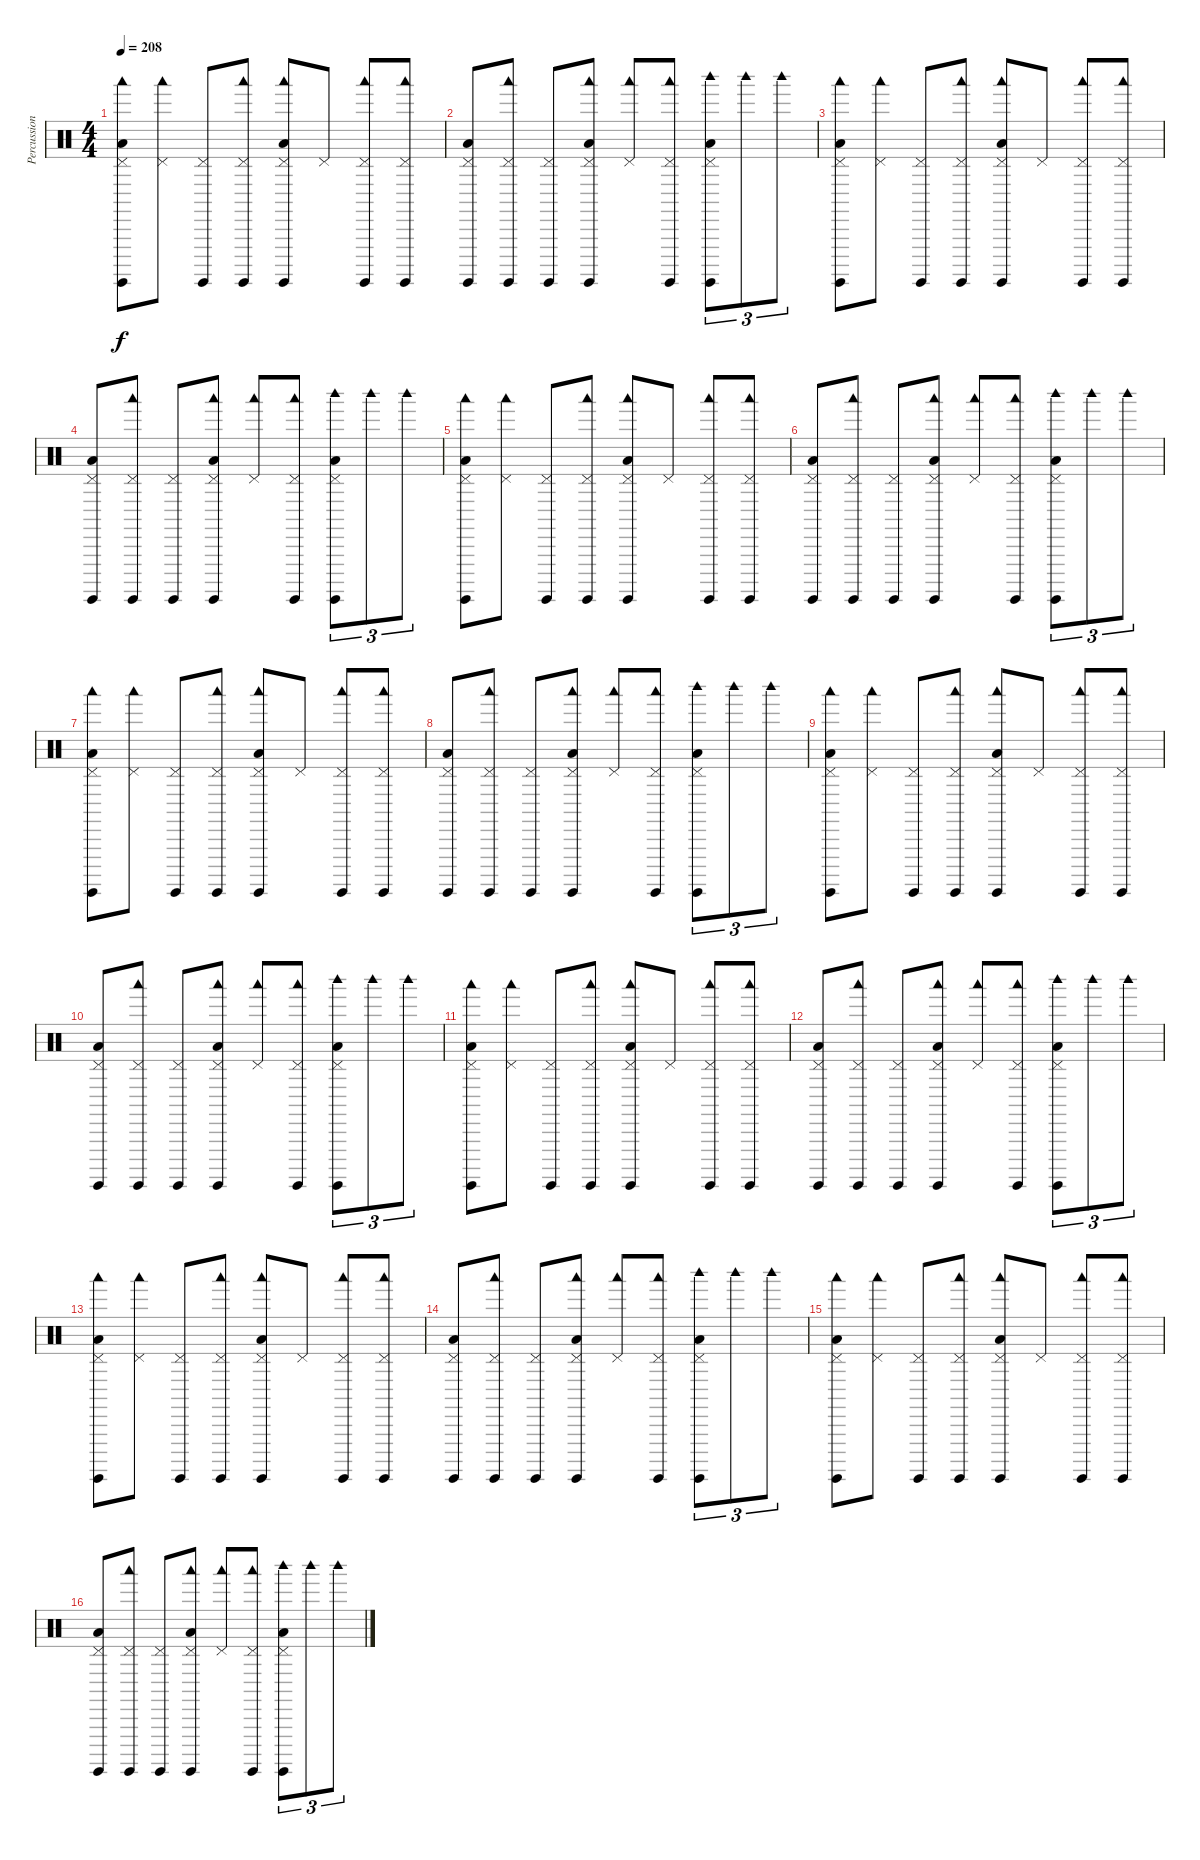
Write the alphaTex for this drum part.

\track ("Percussions" "Percussion") {instrument percussion}
\staff {score}
\articulation defaults
\ts (4 4)
\tempo 208
\clef neutral
\ks c
("Low Floor Tom (hit)" "Surdo (hit)" "Woodblock low (hit)" "Pedal Hi-Hat (hit)").8{bd 240 dy f} ("Woodblock low (hit)" "Pedal Hi-Hat (hit)").8 ("Surdo (hit)" "Pedal Hi-Hat (hit)").8 ("Surdo (hit)" "Woodblock low (hit)" "Pedal Hi-Hat (hit)").8 ("Low Floor Tom (hit)" "Surdo (hit)" "Woodblock low (hit)" "Pedal Hi-Hat (hit)").8{bd 240} "Pedal Hi-Hat (hit)".8 ("Surdo (hit)" "Woodblock low (hit)" "Pedal Hi-Hat (hit)").8 ("Surdo (hit)" "Woodblock low (hit)" "Pedal Hi-Hat (hit)").8 |
("Low Floor Tom (hit)" "Surdo (hit)" "Pedal Hi-Hat (hit)").8{bd 240} ("Surdo (hit)" "Woodblock low (hit)" "Pedal Hi-Hat (hit)").8 ("Surdo (hit)" "Pedal Hi-Hat (hit)").8 ("Low Floor Tom (hit)" "Surdo (hit)" "Woodblock low (hit)" "Pedal Hi-Hat (hit)").8{bd 240} ("Woodblock low (hit)" "Pedal Hi-Hat (hit)").8 ("Surdo (hit)" "Woodblock low (hit)" "Pedal Hi-Hat (hit)").8 ("Low Floor Tom (hit)" "Surdo (hit)" "Woodblock high (hit)" "Pedal Hi-Hat (hit)").8{tu (3 2)} "Woodblock high (hit)".8{tu (3 2)} "Woodblock high (hit)".8{tu (3 2)} |
("Low Floor Tom (hit)" "Surdo (hit)" "Woodblock low (hit)" "Pedal Hi-Hat (hit)").8{bd 240} ("Woodblock low (hit)" "Pedal Hi-Hat (hit)").8 ("Surdo (hit)" "Pedal Hi-Hat (hit)").8 ("Surdo (hit)" "Woodblock low (hit)" "Pedal Hi-Hat (hit)").8 ("Low Floor Tom (hit)" "Surdo (hit)" "Woodblock low (hit)" "Pedal Hi-Hat (hit)").8{bd 240} "Pedal Hi-Hat (hit)".8 ("Surdo (hit)" "Woodblock low (hit)" "Pedal Hi-Hat (hit)").8 ("Surdo (hit)" "Woodblock low (hit)" "Pedal Hi-Hat (hit)").8 |
("Low Floor Tom (hit)" "Surdo (hit)" "Pedal Hi-Hat (hit)").8{bd 240} ("Surdo (hit)" "Woodblock low (hit)" "Pedal Hi-Hat (hit)").8 ("Surdo (hit)" "Pedal Hi-Hat (hit)").8 ("Low Floor Tom (hit)" "Surdo (hit)" "Woodblock low (hit)" "Pedal Hi-Hat (hit)").8{bd 240} ("Woodblock low (hit)" "Pedal Hi-Hat (hit)").8 ("Surdo (hit)" "Woodblock low (hit)" "Pedal Hi-Hat (hit)").8 ("Low Floor Tom (hit)" "Surdo (hit)" "Woodblock high (hit)" "Pedal Hi-Hat (hit)").8{tu (3 2)} "Woodblock high (hit)".8{tu (3 2)} "Woodblock high (hit)".8{tu (3 2)} |
("Low Floor Tom (hit)" "Surdo (hit)" "Woodblock low (hit)" "Pedal Hi-Hat (hit)").8{bd 240} ("Woodblock low (hit)" "Pedal Hi-Hat (hit)").8 ("Surdo (hit)" "Pedal Hi-Hat (hit)").8 ("Surdo (hit)" "Woodblock low (hit)" "Pedal Hi-Hat (hit)").8 ("Low Floor Tom (hit)" "Surdo (hit)" "Woodblock low (hit)" "Pedal Hi-Hat (hit)").8{bd 240} "Pedal Hi-Hat (hit)".8 ("Surdo (hit)" "Woodblock low (hit)" "Pedal Hi-Hat (hit)").8 ("Surdo (hit)" "Woodblock low (hit)" "Pedal Hi-Hat (hit)").8 |
("Low Floor Tom (hit)" "Surdo (hit)" "Pedal Hi-Hat (hit)").8{bd 240} ("Surdo (hit)" "Woodblock low (hit)" "Pedal Hi-Hat (hit)").8 ("Surdo (hit)" "Pedal Hi-Hat (hit)").8 ("Low Floor Tom (hit)" "Surdo (hit)" "Woodblock low (hit)" "Pedal Hi-Hat (hit)").8{bd 240} ("Woodblock low (hit)" "Pedal Hi-Hat (hit)").8 ("Surdo (hit)" "Woodblock low (hit)" "Pedal Hi-Hat (hit)").8 ("Low Floor Tom (hit)" "Surdo (hit)" "Woodblock high (hit)" "Pedal Hi-Hat (hit)").8{tu (3 2)} "Woodblock high (hit)".8{tu (3 2)} "Woodblock high (hit)".8{tu (3 2)} |
("Low Floor Tom (hit)" "Surdo (hit)" "Woodblock low (hit)" "Pedal Hi-Hat (hit)").8{bd 240} ("Woodblock low (hit)" "Pedal Hi-Hat (hit)").8 ("Surdo (hit)" "Pedal Hi-Hat (hit)").8 ("Surdo (hit)" "Woodblock low (hit)" "Pedal Hi-Hat (hit)").8 ("Low Floor Tom (hit)" "Surdo (hit)" "Woodblock low (hit)" "Pedal Hi-Hat (hit)").8{bd 240} "Pedal Hi-Hat (hit)".8 ("Surdo (hit)" "Woodblock low (hit)" "Pedal Hi-Hat (hit)").8 ("Surdo (hit)" "Woodblock low (hit)" "Pedal Hi-Hat (hit)").8 |
("Low Floor Tom (hit)" "Surdo (hit)" "Pedal Hi-Hat (hit)").8{bd 240} ("Surdo (hit)" "Woodblock low (hit)" "Pedal Hi-Hat (hit)").8 ("Surdo (hit)" "Pedal Hi-Hat (hit)").8 ("Low Floor Tom (hit)" "Surdo (hit)" "Woodblock low (hit)" "Pedal Hi-Hat (hit)").8{bd 240} ("Woodblock low (hit)" "Pedal Hi-Hat (hit)").8 ("Surdo (hit)" "Woodblock low (hit)" "Pedal Hi-Hat (hit)").8 ("Low Floor Tom (hit)" "Surdo (hit)" "Woodblock high (hit)" "Pedal Hi-Hat (hit)").8{tu (3 2)} "Woodblock high (hit)".8{tu (3 2)} "Woodblock high (hit)".8{tu (3 2)} |
("Low Floor Tom (hit)" "Surdo (hit)" "Woodblock low (hit)" "Pedal Hi-Hat (hit)").8{bd 240} ("Woodblock low (hit)" "Pedal Hi-Hat (hit)").8 ("Surdo (hit)" "Pedal Hi-Hat (hit)").8 ("Surdo (hit)" "Woodblock low (hit)" "Pedal Hi-Hat (hit)").8 ("Low Floor Tom (hit)" "Surdo (hit)" "Woodblock low (hit)" "Pedal Hi-Hat (hit)").8{bd 240} "Pedal Hi-Hat (hit)".8 ("Surdo (hit)" "Woodblock low (hit)" "Pedal Hi-Hat (hit)").8 ("Surdo (hit)" "Woodblock low (hit)" "Pedal Hi-Hat (hit)").8 |
("Low Floor Tom (hit)" "Surdo (hit)" "Pedal Hi-Hat (hit)").8{bd 240} ("Surdo (hit)" "Woodblock low (hit)" "Pedal Hi-Hat (hit)").8 ("Surdo (hit)" "Pedal Hi-Hat (hit)").8 ("Low Floor Tom (hit)" "Surdo (hit)" "Woodblock low (hit)" "Pedal Hi-Hat (hit)").8{bd 240} ("Woodblock low (hit)" "Pedal Hi-Hat (hit)").8 ("Surdo (hit)" "Woodblock low (hit)" "Pedal Hi-Hat (hit)").8 ("Low Floor Tom (hit)" "Surdo (hit)" "Woodblock high (hit)" "Pedal Hi-Hat (hit)").8{tu (3 2)} "Woodblock high (hit)".8{tu (3 2)} "Woodblock high (hit)".8{tu (3 2)} |
("Low Floor Tom (hit)" "Surdo (hit)" "Woodblock low (hit)" "Pedal Hi-Hat (hit)").8{bd 240} ("Woodblock low (hit)" "Pedal Hi-Hat (hit)").8 ("Surdo (hit)" "Pedal Hi-Hat (hit)").8 ("Surdo (hit)" "Woodblock low (hit)" "Pedal Hi-Hat (hit)").8 ("Low Floor Tom (hit)" "Surdo (hit)" "Woodblock low (hit)" "Pedal Hi-Hat (hit)").8{bd 240} "Pedal Hi-Hat (hit)".8 ("Surdo (hit)" "Woodblock low (hit)" "Pedal Hi-Hat (hit)").8 ("Surdo (hit)" "Woodblock low (hit)" "Pedal Hi-Hat (hit)").8 |
("Low Floor Tom (hit)" "Surdo (hit)" "Pedal Hi-Hat (hit)").8{bd 240} ("Surdo (hit)" "Woodblock low (hit)" "Pedal Hi-Hat (hit)").8 ("Surdo (hit)" "Pedal Hi-Hat (hit)").8 ("Low Floor Tom (hit)" "Surdo (hit)" "Woodblock low (hit)" "Pedal Hi-Hat (hit)").8{bd 240} ("Woodblock low (hit)" "Pedal Hi-Hat (hit)").8 ("Surdo (hit)" "Woodblock low (hit)" "Pedal Hi-Hat (hit)").8 ("Low Floor Tom (hit)" "Surdo (hit)" "Woodblock high (hit)" "Pedal Hi-Hat (hit)").8{tu (3 2)} "Woodblock high (hit)".8{tu (3 2)} "Woodblock high (hit)".8{tu (3 2)} |
("Low Floor Tom (hit)" "Surdo (hit)" "Woodblock low (hit)" "Pedal Hi-Hat (hit)").8{bd 240} ("Woodblock low (hit)" "Pedal Hi-Hat (hit)").8 ("Surdo (hit)" "Pedal Hi-Hat (hit)").8 ("Surdo (hit)" "Woodblock low (hit)" "Pedal Hi-Hat (hit)").8 ("Low Floor Tom (hit)" "Surdo (hit)" "Woodblock low (hit)" "Pedal Hi-Hat (hit)").8{bd 240} "Pedal Hi-Hat (hit)".8 ("Surdo (hit)" "Woodblock low (hit)" "Pedal Hi-Hat (hit)").8 ("Surdo (hit)" "Woodblock low (hit)" "Pedal Hi-Hat (hit)").8 |
("Low Floor Tom (hit)" "Surdo (hit)" "Pedal Hi-Hat (hit)").8{bd 240} ("Surdo (hit)" "Woodblock low (hit)" "Pedal Hi-Hat (hit)").8 ("Surdo (hit)" "Pedal Hi-Hat (hit)").8 ("Low Floor Tom (hit)" "Surdo (hit)" "Woodblock low (hit)" "Pedal Hi-Hat (hit)").8{bd 240} ("Woodblock low (hit)" "Pedal Hi-Hat (hit)").8 ("Surdo (hit)" "Woodblock low (hit)" "Pedal Hi-Hat (hit)").8 ("Low Floor Tom (hit)" "Surdo (hit)" "Woodblock high (hit)" "Pedal Hi-Hat (hit)").8{tu (3 2)} "Woodblock high (hit)".8{tu (3 2)} "Woodblock high (hit)".8{tu (3 2)} |
("Low Floor Tom (hit)" "Surdo (hit)" "Woodblock low (hit)" "Pedal Hi-Hat (hit)").8{bd 240} ("Woodblock low (hit)" "Pedal Hi-Hat (hit)").8 ("Surdo (hit)" "Pedal Hi-Hat (hit)").8 ("Surdo (hit)" "Woodblock low (hit)" "Pedal Hi-Hat (hit)").8 ("Low Floor Tom (hit)" "Surdo (hit)" "Woodblock low (hit)" "Pedal Hi-Hat (hit)").8{bd 240} "Pedal Hi-Hat (hit)".8 ("Surdo (hit)" "Woodblock low (hit)" "Pedal Hi-Hat (hit)").8 ("Surdo (hit)" "Woodblock low (hit)" "Pedal Hi-Hat (hit)").8 |
("Low Floor Tom (hit)" "Surdo (hit)" "Pedal Hi-Hat (hit)").8{bd 240} ("Surdo (hit)" "Woodblock low (hit)" "Pedal Hi-Hat (hit)").8 ("Surdo (hit)" "Pedal Hi-Hat (hit)").8 ("Low Floor Tom (hit)" "Surdo (hit)" "Woodblock low (hit)" "Pedal Hi-Hat (hit)").8{bd 240} ("Woodblock low (hit)" "Pedal Hi-Hat (hit)").8 ("Surdo (hit)" "Woodblock low (hit)" "Pedal Hi-Hat (hit)").8 ("Low Floor Tom (hit)" "Surdo (hit)" "Woodblock high (hit)" "Pedal Hi-Hat (hit)").8{tu (3 2)} "Woodblock high (hit)".8{tu (3 2)} "Woodblock high (hit)".8{tu (3 2)}
